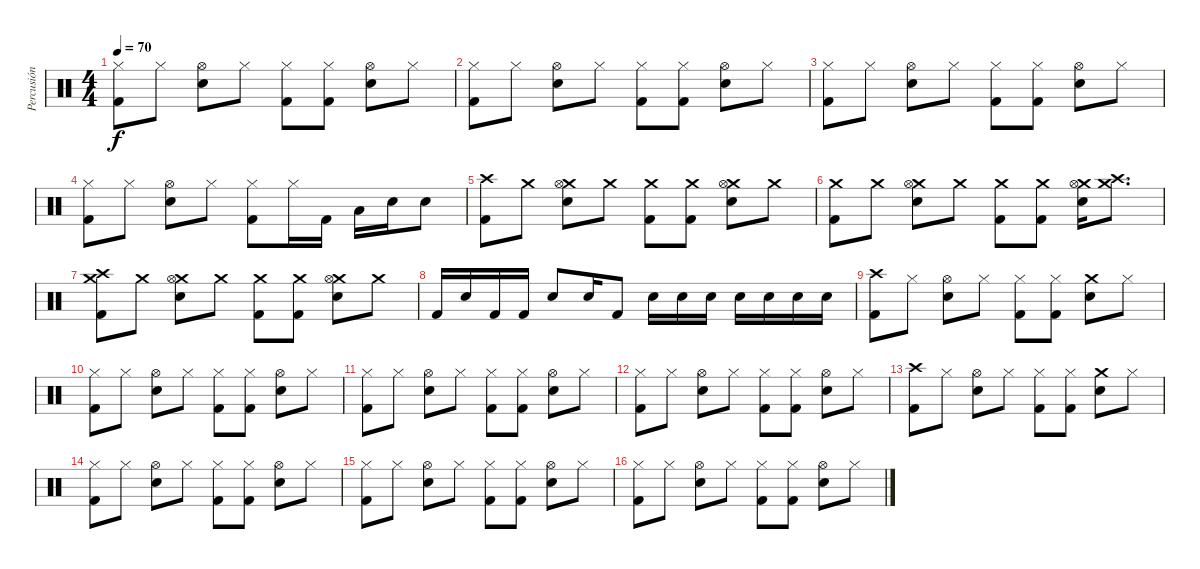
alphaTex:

\track ("Percusión" "Percusión") {instrument percussion}
\staff {score}
\articulation defaults
\ts (4 4)
\tempo 70
\clef neutral
\ks c
("Hi-Hat (closed)" "Kick (hit) 2").8{dy f} "Hi-Hat (closed)".8 ("Hi-Hat (open)" "Snare (hit) 2").8 "Hi-Hat (closed)".8 ("Hi-Hat (closed)" "Kick (hit) 2").8 ("Hi-Hat (closed)" "Kick (hit) 2").8 ("Hi-Hat (open)" "Snare (hit) 2").8 "Hi-Hat (closed)".8 |
("Hi-Hat (closed)" "Kick (hit) 2").8 "Hi-Hat (closed)".8 ("Hi-Hat (open)" "Snare (hit) 2").8 "Hi-Hat (closed)".8 ("Hi-Hat (closed)" "Kick (hit) 2").8 ("Hi-Hat (closed)" "Kick (hit) 2").8 ("Hi-Hat (open)" "Snare (hit) 2").8 "Hi-Hat (closed)".8 |
("Hi-Hat (closed)" "Kick (hit) 2").8 "Hi-Hat (closed)".8 ("Hi-Hat (open)" "Snare (hit) 2").8 "Hi-Hat (closed)".8 ("Hi-Hat (closed)" "Kick (hit) 2").8 ("Hi-Hat (closed)" "Kick (hit) 2").8 ("Hi-Hat (open)" "Snare (hit) 2").8 "Hi-Hat (closed)".8 |
("Hi-Hat (closed)" "Kick (hit) 2").8 "Hi-Hat (closed)".8 ("Hi-Hat (open)" "Snare (hit) 2").8 "Hi-Hat (closed)".8 ("Hi-Hat (closed)" "Kick (hit) 2").8 "Hi-Hat (closed)".16 "Kick (hit) 2".16 "Low Tom (hit)".16 "Snare (hit) 2".16 "Snare (hit) 2".8 |
("Crash high (hit)" "Kick (hit) 2").8 "Crash medium (hit)".8 ("Crash medium (hit)" "Hi-Hat (open)" "Snare (hit) 2").8 "Crash medium (hit)".8 ("Crash medium (hit)" "Kick (hit) 2").8 ("Crash medium (hit)" "Kick (hit) 2").8 ("Crash medium (hit)" "Hi-Hat (open)" "Snare (hit) 2").8 "Crash medium (hit)".8 |
("Crash medium (hit)" "Kick (hit) 2").8 "Crash medium (hit)".8 ("Crash medium (hit)" "Hi-Hat (open)" "Snare (hit) 2").8 "Crash medium (hit)".8 ("Crash medium (hit)" "Kick (hit) 2").8 ("Crash medium (hit)" "Kick (hit) 2").8 ("Crash medium (hit)" "Hi-Hat (open)" "Snare (hit) 2").16 ("Crash medium (hit)" "Crash high (hit)").8{d} |
("Crash medium (hit)" "Crash high (hit)" "Kick (hit) 2").8 "Crash medium (hit)".8 ("Crash medium (hit)" "Hi-Hat (open)" "Snare (hit) 2").8 "Crash medium (hit)".8 ("Crash medium (hit)" "Kick (hit) 2").8 ("Crash medium (hit)" "Kick (hit) 2").8 ("Crash medium (hit)" "Hi-Hat (open)" "Snare (hit) 2").8 "Crash medium (hit)".8 |
"Kick (hit) 2".16 "Snare (hit) 2".16 "Kick (hit) 2".16 "Kick (hit) 2".16 "Snare (hit) 2".8 "Snare (hit) 2".16 "Kick (hit) 2".8 "Snare (hit) 2".16 "Snare (hit) 2".16 "Snare (hit) 2".16 "Snare (hit) 2".16 "Snare (hit) 2".16 "Snare (hit) 2".16 "Snare (hit) 2".16 |
("Crash high (hit)" "Kick (hit) 2").8 "Hi-Hat (closed)".8 ("Hi-Hat (open)" "Snare (hit) 2").8 "Hi-Hat (closed)".8 ("Hi-Hat (closed)" "Kick (hit) 2").8 ("Hi-Hat (closed)" "Kick (hit) 2").8 ("Crash medium (hit)" "Snare (hit) 2").8 "Hi-Hat (closed)".8 |
("Hi-Hat (closed)" "Kick (hit) 2").8 "Hi-Hat (closed)".8 ("Hi-Hat (open)" "Snare (hit) 2").8 "Hi-Hat (closed)".8 ("Hi-Hat (closed)" "Kick (hit) 2").8 ("Hi-Hat (closed)" "Kick (hit) 2").8 ("Hi-Hat (open)" "Snare (hit) 2").8 "Hi-Hat (closed)".8 |
("Hi-Hat (closed)" "Kick (hit) 2").8 "Hi-Hat (closed)".8 ("Hi-Hat (open)" "Snare (hit) 2").8 "Hi-Hat (closed)".8 ("Hi-Hat (closed)" "Kick (hit) 2").8 ("Hi-Hat (closed)" "Kick (hit) 2").8 ("Hi-Hat (open)" "Snare (hit) 2").8 "Hi-Hat (closed)".8 |
("Hi-Hat (closed)" "Kick (hit) 2").8 "Hi-Hat (closed)".8 ("Hi-Hat (open)" "Snare (hit) 2").8 "Hi-Hat (closed)".8 ("Hi-Hat (closed)" "Kick (hit) 2").8 ("Hi-Hat (closed)" "Kick (hit) 2").8 ("Hi-Hat (open)" "Snare (hit) 2").8 "Hi-Hat (closed)".8 |
("Crash high (hit)" "Kick (hit) 2").8 "Hi-Hat (closed)".8 ("Hi-Hat (open)" "Snare (hit) 2").8 "Hi-Hat (closed)".8 ("Hi-Hat (closed)" "Kick (hit) 2").8 ("Hi-Hat (closed)" "Kick (hit) 2").8 ("Crash medium (hit)" "Snare (hit) 2").8 "Hi-Hat (closed)".8 |
("Hi-Hat (closed)" "Kick (hit) 2").8 "Hi-Hat (closed)".8 ("Hi-Hat (open)" "Snare (hit) 2").8 "Hi-Hat (closed)".8 ("Hi-Hat (closed)" "Kick (hit) 2").8 ("Hi-Hat (closed)" "Kick (hit) 2").8 ("Hi-Hat (open)" "Snare (hit) 2").8 "Hi-Hat (closed)".8 |
("Hi-Hat (closed)" "Kick (hit) 2").8 "Hi-Hat (closed)".8 ("Hi-Hat (open)" "Snare (hit) 2").8 "Hi-Hat (closed)".8 ("Hi-Hat (closed)" "Kick (hit) 2").8 ("Hi-Hat (closed)" "Kick (hit) 2").8 ("Hi-Hat (open)" "Snare (hit) 2").8 "Hi-Hat (closed)".8 |
("Hi-Hat (closed)" "Kick (hit) 2").8 "Hi-Hat (closed)".8 ("Hi-Hat (open)" "Snare (hit) 2").8 "Hi-Hat (closed)".8 ("Hi-Hat (closed)" "Kick (hit) 2").8 ("Hi-Hat (closed)" "Kick (hit) 2").8 ("Hi-Hat (open)" "Snare (hit) 2").8 "Hi-Hat (closed)".8
